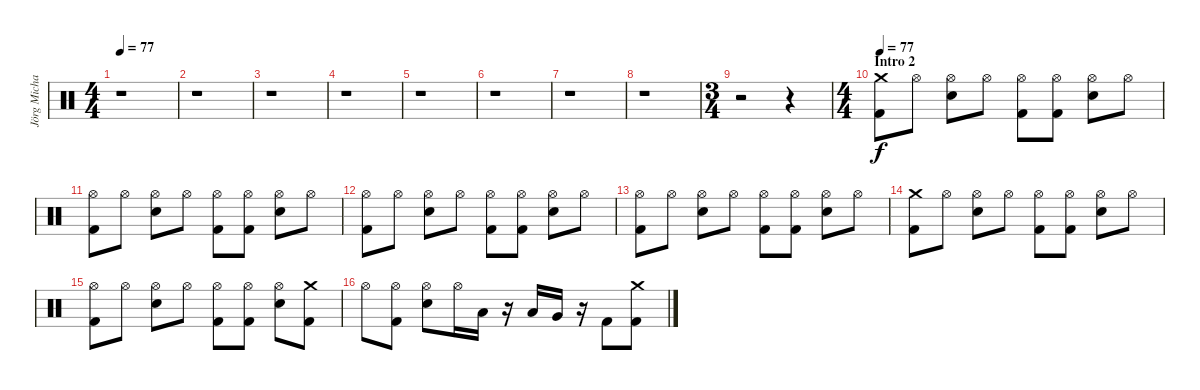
\track ("Jörg Michael" "Jörg Micha") {instrument percussion}
\staff {score}
\articulation defaults
\ts (4 4)
\tempo 77
\tempo 60
\tempo 77
\clef neutral
\ks c
r.1{dy f} |
r.1 |
r.1 |
r.1 |
r.1 |
r.1 |
r.1 |
r.1 |
\ts (3 4)
r.2 r.4 |
\ts (4 4)
\section ("" "Intro 2")
\tempo 77
("Crash medium (hit)" "Kick (hit) 2").8 "Hi-Hat (open)".8 ("Hi-Hat (open)" "Electric Snare (hit)").8 "Hi-Hat (open)".8 ("Hi-Hat (open)" "Kick (hit) 2").8 ("Hi-Hat (open)" "Kick (hit) 2").8 ("Hi-Hat (open)" "Electric Snare (hit)").8 "Hi-Hat (open)".8 |
("Hi-Hat (open)" "Kick (hit) 2").8 "Hi-Hat (open)".8 ("Hi-Hat (open)" "Electric Snare (hit)").8 "Hi-Hat (open)".8 ("Hi-Hat (open)" "Kick (hit) 2").8 ("Hi-Hat (open)" "Kick (hit) 2").8 ("Hi-Hat (open)" "Electric Snare (hit)").8 "Hi-Hat (open)".8 |
("Hi-Hat (open)" "Kick (hit) 2").8 "Hi-Hat (open)".8 ("Hi-Hat (open)" "Electric Snare (hit)").8 "Hi-Hat (open)".8 ("Hi-Hat (open)" "Kick (hit) 2").8 ("Hi-Hat (open)" "Kick (hit) 2").8 ("Hi-Hat (open)" "Electric Snare (hit)").8 "Hi-Hat (open)".8 |
("Hi-Hat (open)" "Kick (hit) 2").8 "Hi-Hat (open)".8 ("Hi-Hat (open)" "Electric Snare (hit)").8 "Hi-Hat (open)".8 ("Hi-Hat (open)" "Kick (hit) 2").8 ("Hi-Hat (open)" "Kick (hit) 2").8 ("Hi-Hat (open)" "Electric Snare (hit)").8 "Hi-Hat (open)".8 |
("Crash medium (hit)" "Kick (hit) 2").8 "Hi-Hat (open)".8 ("Hi-Hat (open)" "Electric Snare (hit)").8 "Hi-Hat (open)".8 ("Hi-Hat (open)" "Kick (hit) 2").8 ("Hi-Hat (open)" "Kick (hit) 2").8 ("Hi-Hat (open)" "Electric Snare (hit)").8 "Hi-Hat (open)".8 |
("Hi-Hat (open)" "Kick (hit) 2").8 "Hi-Hat (open)".8 ("Hi-Hat (open)" "Electric Snare (hit)").8 "Hi-Hat (open)".8 ("Hi-Hat (open)" "Kick (hit) 2").8 ("Hi-Hat (open)" "Kick (hit) 2").8 ("Hi-Hat (open)" "Electric Snare (hit)").8 ("Crash medium (hit)" "Kick (hit) 2").8 |
"Hi-Hat (open)".8 ("Hi-Hat (open)" "Kick (hit) 2").8 ("Hi-Hat (open)" "Electric Snare (hit)").8 "Hi-Hat (open)".16 "Low Tom (hit)".16 r.16 "Low Tom (hit)".16 "Very Low Tom (hit)".16 r.16 "Kick (hit) 2".8 ("Crash medium (hit)" "Kick (hit) 2").8
